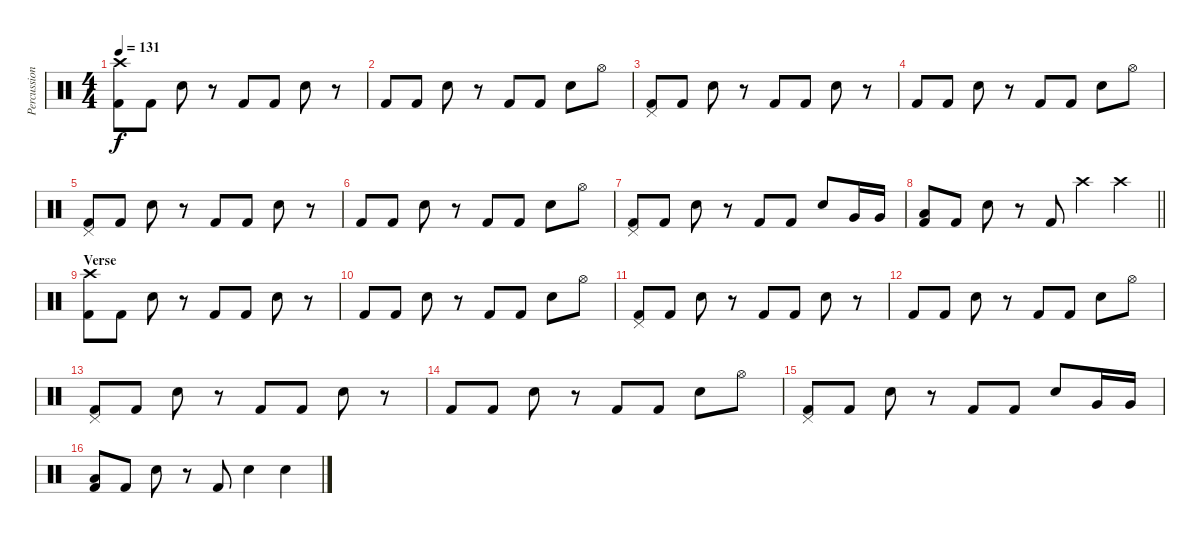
\track ("Percussion" "Percussion") {instrument percussion}
\staff {score}
\articulation defaults
\ts (4 4)
\tempo 131
\clef neutral
\ks c
("Crash high (hit)" "Kick (hit) 2").8{dy f} "Kick (hit) 2".8 "Electric Snare (hit)".8 r.8 "Kick (hit) 2".8 "Kick (hit) 2".8 "Electric Snare (hit)".8 r.8 |
"Kick (hit) 2".8 "Kick (hit) 2".8 "Electric Snare (hit)".8 r.8 "Kick (hit) 2".8 "Kick (hit) 2".8 "Electric Snare (hit)".8 "Hi-Hat (open)".8 |
("Pedal Hi-Hat (hit)" "Kick (hit) 2").8 "Kick (hit) 2".8 "Electric Snare (hit)".8 r.8 "Kick (hit) 2".8 "Kick (hit) 2".8 "Electric Snare (hit)".8 r.8 |
"Kick (hit) 2".8 "Kick (hit) 2".8 "Electric Snare (hit)".8 r.8 "Kick (hit) 2".8 "Kick (hit) 2".8 "Electric Snare (hit)".8 "Hi-Hat (open)".8 |
("Pedal Hi-Hat (hit)" "Kick (hit) 2").8 "Kick (hit) 2".8 "Electric Snare (hit)".8 r.8 "Kick (hit) 2".8 "Kick (hit) 2".8 "Electric Snare (hit)".8 r.8 |
"Kick (hit) 2".8 "Kick (hit) 2".8 "Electric Snare (hit)".8 r.8 "Kick (hit) 2".8 "Kick (hit) 2".8 "Electric Snare (hit)".8 "Hi-Hat (open)".8 |
("Pedal Hi-Hat (hit)" "Kick (hit) 2").8 "Kick (hit) 2".8 "Electric Snare (hit)".8 r.8 "Kick (hit) 2".8 "Kick (hit) 2".8 "Electric Snare (hit)".8 "Very Low Tom (hit)".16 "Very Low Tom (hit)".16 |
\barLineRight lightlight
("Low Floor Tom (hit)" "Kick (hit) 2").8 "Kick (hit) 2".8 "Electric Snare (hit)".8 r.8 "Kick (hit) 2".8 "Crash high (hit)".4 "Crash high (hit)".4 |
\section ("" "Verse")
("Crash high (hit)" "Kick (hit) 2").8 "Kick (hit) 2".8 "Electric Snare (hit)".8 r.8 "Kick (hit) 2".8 "Kick (hit) 2".8 "Electric Snare (hit)".8 r.8 |
"Kick (hit) 2".8 "Kick (hit) 2".8 "Electric Snare (hit)".8 r.8 "Kick (hit) 2".8 "Kick (hit) 2".8 "Electric Snare (hit)".8 "Hi-Hat (open)".8 |
("Pedal Hi-Hat (hit)" "Kick (hit) 2").8 "Kick (hit) 2".8 "Electric Snare (hit)".8 r.8 "Kick (hit) 2".8 "Kick (hit) 2".8 "Electric Snare (hit)".8 r.8 |
"Kick (hit) 2".8 "Kick (hit) 2".8 "Electric Snare (hit)".8 r.8 "Kick (hit) 2".8 "Kick (hit) 2".8 "Electric Snare (hit)".8 "Hi-Hat (open)".8 |
("Pedal Hi-Hat (hit)" "Kick (hit) 2").8 "Kick (hit) 2".8 "Electric Snare (hit)".8 r.8 "Kick (hit) 2".8 "Kick (hit) 2".8 "Electric Snare (hit)".8 r.8 |
"Kick (hit) 2".8 "Kick (hit) 2".8 "Electric Snare (hit)".8 r.8 "Kick (hit) 2".8 "Kick (hit) 2".8 "Electric Snare (hit)".8 "Hi-Hat (open)".8 |
("Pedal Hi-Hat (hit)" "Kick (hit) 2").8 "Kick (hit) 2".8 "Electric Snare (hit)".8 r.8 "Kick (hit) 2".8 "Kick (hit) 2".8 "Electric Snare (hit)".8 "Very Low Tom (hit)".16 "Very Low Tom (hit)".16 |
("Low Floor Tom (hit)" "Kick (hit) 2").8 "Kick (hit) 2".8 "Electric Snare (hit)".8 r.8 "Kick (hit) 2".8 "Electric Snare (hit)".4 "Electric Snare (hit)".4
